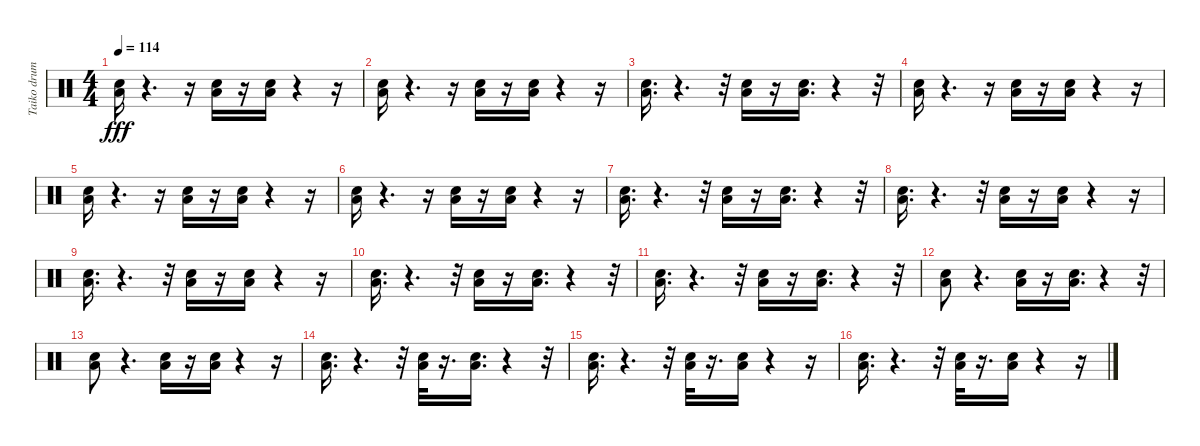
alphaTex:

\track ("Taiko drum" "Taiko drum") {instrument percussion}
\staff {score}
\articulation defaults
\ts (4 4)
\tempo 114
\clef neutral
\ks c
("Low Floor Tom (hit)" "Electric Snare (hit)").16{dy fff} r.4{d} r.16 ("Low Floor Tom (hit)" "Electric Snare (hit)").16 r.16 ("Low Floor Tom (hit)" "Electric Snare (hit)").16 r.4 r.16 |
("Low Floor Tom (hit)" "Electric Snare (hit)").16 r.4{d} r.16 ("Low Floor Tom (hit)" "Electric Snare (hit)").16 r.16 ("Low Floor Tom (hit)" "Electric Snare (hit)").16 r.4 r.16 |
("Low Floor Tom (hit)" "Electric Snare (hit)").16{d} r.4{d} r.32 ("Low Floor Tom (hit)" "Electric Snare (hit)").16 r.16 ("Low Floor Tom (hit)" "Electric Snare (hit)").16{d} r.4 r.32 |
("Low Floor Tom (hit)" "Electric Snare (hit)").16 r.4{d} r.16 ("Low Floor Tom (hit)" "Electric Snare (hit)").16 r.16 ("Low Floor Tom (hit)" "Electric Snare (hit)").16 r.4 r.16 |
("Low Floor Tom (hit)" "Electric Snare (hit)").16 r.4{d} r.16 ("Low Floor Tom (hit)" "Electric Snare (hit)").16 r.16 ("Low Floor Tom (hit)" "Electric Snare (hit)").16 r.4 r.16 |
("Low Floor Tom (hit)" "Electric Snare (hit)").16 r.4{d} r.16 ("Low Floor Tom (hit)" "Electric Snare (hit)").16 r.16 ("Low Floor Tom (hit)" "Electric Snare (hit)").16 r.4 r.16 |
("Low Floor Tom (hit)" "Electric Snare (hit)").16{d} r.4{d} r.32 ("Low Floor Tom (hit)" "Electric Snare (hit)").16 r.16 ("Low Floor Tom (hit)" "Electric Snare (hit)").16{d} r.4 r.32 |
("Low Floor Tom (hit)" "Electric Snare (hit)").16{d} r.4{d} r.32 ("Low Floor Tom (hit)" "Electric Snare (hit)").16 r.16 ("Low Floor Tom (hit)" "Electric Snare (hit)").16 r.4 r.16 |
("Low Floor Tom (hit)" "Electric Snare (hit)").16{d} r.4{d} r.32 ("Low Floor Tom (hit)" "Electric Snare (hit)").16 r.16 ("Low Floor Tom (hit)" "Electric Snare (hit)").16 r.4 r.16 |
("Low Floor Tom (hit)" "Electric Snare (hit)").16{d} r.4{d} r.32 ("Low Floor Tom (hit)" "Electric Snare (hit)").16 r.16 ("Low Floor Tom (hit)" "Electric Snare (hit)").16{d} r.4 r.32 |
("Low Floor Tom (hit)" "Electric Snare (hit)").16{d} r.4{d} r.32 ("Low Floor Tom (hit)" "Electric Snare (hit)").16 r.16 ("Low Floor Tom (hit)" "Electric Snare (hit)").16{d} r.4 r.32 |
("Low Floor Tom (hit)" "Electric Snare (hit)").8 r.4{d} ("Low Floor Tom (hit)" "Electric Snare (hit)").16 r.16 ("Low Floor Tom (hit)" "Electric Snare (hit)").16{d} r.4 r.32 |
("Low Floor Tom (hit)" "Electric Snare (hit)").8 r.4{d} ("Low Floor Tom (hit)" "Electric Snare (hit)").16 r.16 ("Electric Snare (hit)" "Low Floor Tom (hit)").16 r.4 r.16 |
("Electric Snare (hit)" "Low Floor Tom (hit)").16{d} r.4{d} r.32 ("Low Floor Tom (hit)" "Electric Snare (hit)").32 r.16{d} ("Electric Snare (hit)" "Low Floor Tom (hit)").16{d} r.4 r.32 |
("Low Floor Tom (hit)" "Electric Snare (hit)").16{d} r.4{d} r.32 ("Low Floor Tom (hit)" "Electric Snare (hit)").32 r.16{d} ("Low Floor Tom (hit)" "Electric Snare (hit)").16 r.4 r.16 |
("Electric Snare (hit)" "Low Floor Tom (hit)").16{d} r.4{d} r.32 ("Electric Snare (hit)" "Low Floor Tom (hit)").32 r.16{d} ("Electric Snare (hit)" "Low Floor Tom (hit)").16 r.4 r.16
